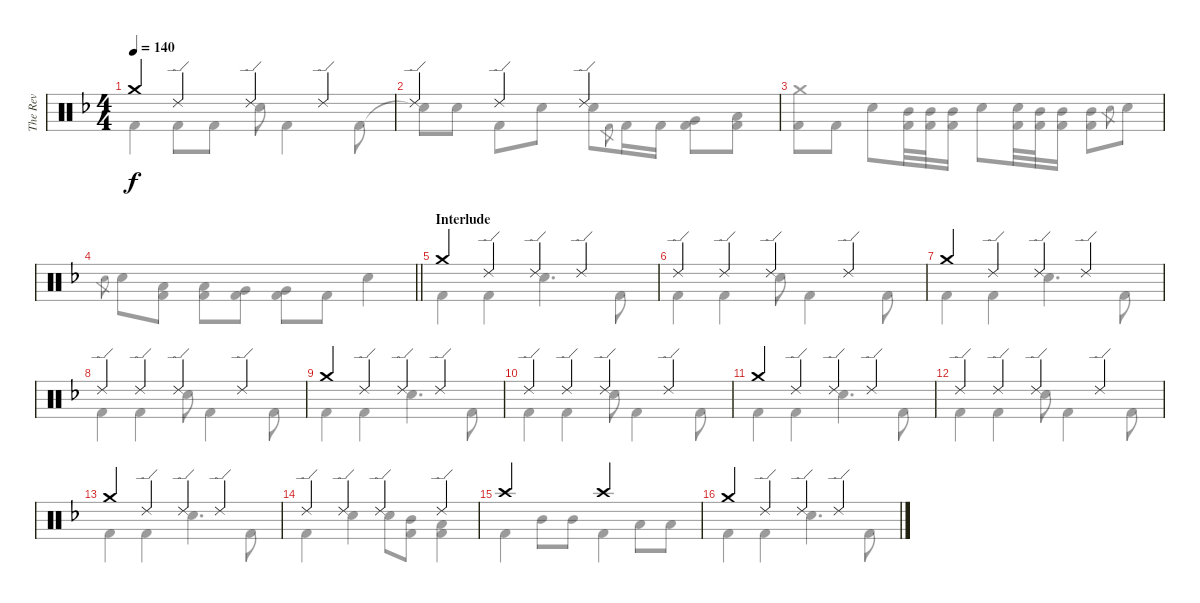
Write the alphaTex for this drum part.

\track ("The Rev" "The Rev") {instrument percussion}
\staff {score}
\articulation defaults
\voice
\ts (4 4)
\tempo 140
\clef neutral
\ks dminor "Crash medium (hit)".4{dy f} "Ride (edge) 2".4 "Ride (edge) 2".4 "Ride (edge) 2".4
|
"Ride (edge) 2".4 "Ride (edge) 2".4 "Ride (edge) 2".2 |
|
\barLineRight lightlight
|
\section ("" "Interlude")
"Crash medium (hit)".4 "Ride (edge) 2".4 "Ride (edge) 2".4 "Ride (edge) 2".4 |
"Ride (edge) 2".4 "Ride (edge) 2".4 "Ride (edge) 2".4 "Ride (edge) 2".4 |
"Crash medium (hit)".4 "Ride (edge) 2".4 "Ride (edge) 2".4 "Ride (edge) 2".4 |
"Ride (edge) 2".4 "Ride (edge) 2".4 "Ride (edge) 2".4 "Ride (edge) 2".4 |
"Crash medium (hit)".4 "Ride (edge) 2".4 "Ride (edge) 2".4 "Ride (edge) 2".4 |
"Ride (edge) 2".4 "Ride (edge) 2".4 "Ride (edge) 2".4 "Ride (edge) 2".4 |
"Crash medium (hit)".4 "Ride (edge) 2".4 "Ride (edge) 2".4 "Ride (edge) 2".4 |
"Ride (edge) 2".4 "Ride (edge) 2".4 "Ride (edge) 2".4 "Ride (edge) 2".4 |
"Crash medium (hit)".4 "Ride (edge) 2".4 "Ride (edge) 2".4 "Ride (edge) 2".4 |
"Ride (edge) 2".4 "Ride (edge) 2".4 "Ride (edge) 2".4 "Ride (edge) 2".4 |
"Crash high (hit)".2 "Crash high (hit)".2 |
"Crash medium (hit)".4 "Ride (edge) 2".4 "Ride (edge) 2".4 "Ride (edge) 2".4
\voice
\clef neutral
\ottava regular
\simile none
\ks dminor "Kick (hit) 2".4{dy f} "Kick (hit) 2".8 "Kick (hit) 2".8 "Electric Snare (hit)".8 "Kick (hit) 2".4 "Kick (hit) 2".8
|
"Snare (hit)"{t}.8 "Electric Snare (hit)".8 "Kick (hit) 2".8 "Electric Snare (hit)".8 "Electric Snare (hit)".8 "Kick (hit) 2".8{gr} "Kick (hit) 2".16 "Kick (hit) 2".16 ("Very Low Tom (hit)" "Kick (hit) 2").8 ("Low Floor Tom (hit)" "Kick (hit) 2").8 |
("Crash medium (hit)" "Kick (hit) 2").8 "Kick (hit) 2".8 "Electric Snare (hit)".8 ("Mid Tom (hit)" "Kick (hit) 2").32 ("Mid Tom (hit)" "Kick (hit) 2").32 ("Mid Tom (hit)" "Kick (hit) 2").16 "Electric Snare (hit)".8 ("Electric Snare (hit)" "Kick (hit) 2").32 ("Mid Tom (hit)" "Kick (hit) 2").32 ("Mid Tom (hit)" "Kick (hit) 2").16 ("Mid Tom (hit)" "Kick (hit) 2").8 "Electric Snare (hit)".8{gr} "Electric Snare (hit)".8 |
\barLineRight lightlight "Electric Snare (hit)".8{gr} "Electric Snare (hit)".8
("Low Tom (hit)" "Kick (hit) 2").8 ("Low Tom (hit)" "Kick (hit) 2").8 ("Very Low Tom (hit)" "Kick (hit) 2").8 ("Very Low Tom (hit)" "Kick (hit) 2").8 "Kick (hit) 2".8 "Electric Snare (hit)".4 |
"Kick (hit) 2".4 "Kick (hit) 2".4 "Electric Snare (hit)".4{d} "Kick (hit) 2".8 |
"Kick (hit) 2".4 "Kick (hit) 2".4 "Electric Snare (hit)".8 "Kick (hit) 2".4 "Kick (hit) 2".8 |
"Kick (hit) 2".4 "Kick (hit) 2".4 "Electric Snare (hit)".4{d} "Kick (hit) 2".8 |
"Kick (hit) 2".4 "Kick (hit) 2".4 "Electric Snare (hit)".8 "Kick (hit) 2".4 "Kick (hit) 2".8 |
"Kick (hit) 2".4 "Kick (hit) 2".4 "Electric Snare (hit)".4{d} "Kick (hit) 2".8 |
"Kick (hit) 2".4 "Kick (hit) 2".4 "Electric Snare (hit)".8 "Kick (hit) 2".4 "Kick (hit) 2".8 |
"Kick (hit) 2".4 "Kick (hit) 2".4 "Electric Snare (hit)".4{d} "Kick (hit) 2".8 |
"Kick (hit) 2".4 "Kick (hit) 2".4 "Electric Snare (hit)".8 "Kick (hit) 2".4 "Kick (hit) 2".8 |
"Kick (hit) 2".4 "Kick (hit) 2".4 "Electric Snare (hit)".4{d} "Kick (hit) 2".8 |
"Kick (hit) 2".4 "Electric Snare (hit)".4 "Electric Snare (hit)".8 ("Mid Tom (hit)" "Kick (hit) 2").8 ("Low Tom (hit)" "Kick (hit) 2").4 |
"Kick (hit) 2".4 "Mid Tom (hit)".8 "Mid Tom (hit)".8 "Kick (hit) 2".4 "Low Tom (hit)".8 "Low Tom (hit)".8 |
"Kick (hit) 2".4 "Kick (hit) 2".4 "Electric Snare (hit)".4{d} "Kick (hit) 2".8
